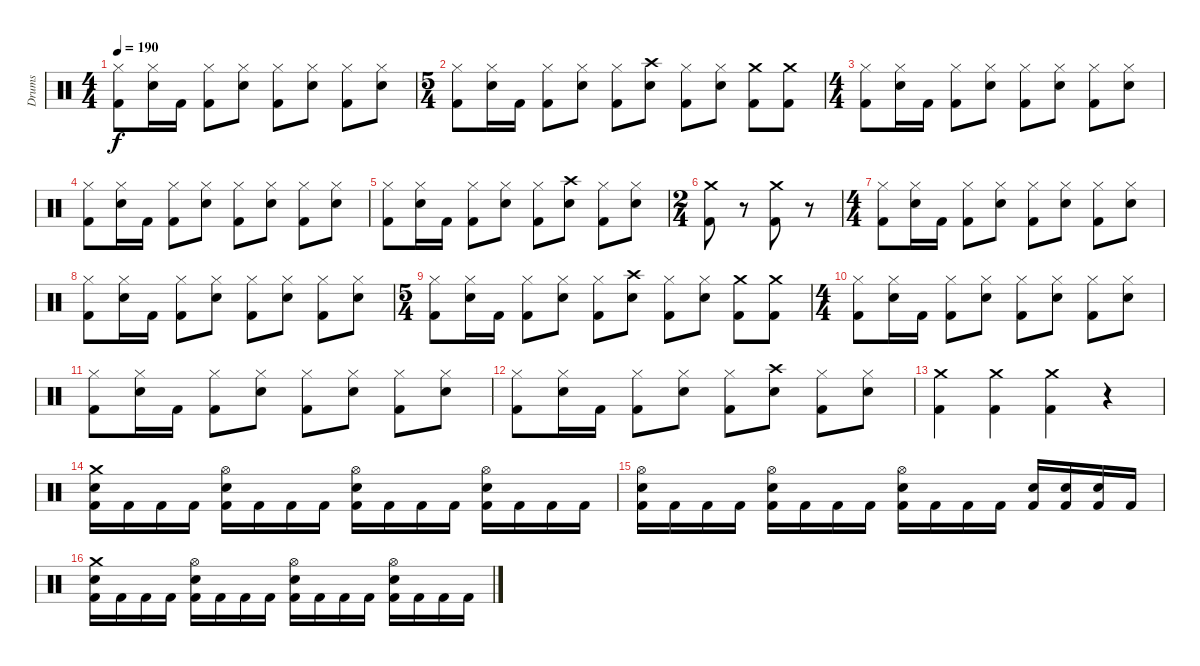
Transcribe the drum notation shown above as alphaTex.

\track ("Drums" "Drums") {instrument percussion}
\staff {score}
\articulation defaults
\ts (4 4)
\tempo 190
\clef neutral
\ks c
("Kick (hit) 2" "Hi-Hat (closed)").8{dy f} ("Snare (hit) 2" "Hi-Hat (closed)").16 "Kick (hit) 2".16 ("Kick (hit) 2" "Hi-Hat (closed)").8 ("Snare (hit) 2" "Hi-Hat (closed)").8 ("Kick (hit) 2" "Hi-Hat (closed)").8 ("Snare (hit) 2" "Hi-Hat (closed)").8 ("Kick (hit) 2" "Hi-Hat (closed)").8 ("Snare (hit) 2" "Hi-Hat (closed)").8 |
\ts (5 4)
("Kick (hit) 2" "Hi-Hat (closed)").8 ("Snare (hit) 2" "Hi-Hat (closed)").16 "Kick (hit) 2".16 ("Kick (hit) 2" "Hi-Hat (closed)").8 ("Snare (hit) 2" "Hi-Hat (closed)").8 ("Kick (hit) 2" "Hi-Hat (closed)").8 ("Snare (hit) 2" "Crash high (hit)").8 ("Kick (hit) 2" "Hi-Hat (closed)").8 ("Snare (hit) 2" "Hi-Hat (closed)").8 ("Kick (hit) 2" "Crash medium (hit)").8 ("Kick (hit) 2" "Crash medium (hit)").8 |
\ts (4 4)
("Kick (hit) 2" "Hi-Hat (closed)").8 ("Snare (hit) 2" "Hi-Hat (closed)").16 "Kick (hit) 2".16 ("Kick (hit) 2" "Hi-Hat (closed)").8 ("Snare (hit) 2" "Hi-Hat (closed)").8 ("Kick (hit) 2" "Hi-Hat (closed)").8 ("Snare (hit) 2" "Hi-Hat (closed)").8 ("Kick (hit) 2" "Hi-Hat (closed)").8 ("Snare (hit) 2" "Hi-Hat (closed)").8 |
("Kick (hit) 2" "Hi-Hat (closed)").8 ("Snare (hit) 2" "Hi-Hat (closed)").16 "Kick (hit) 2".16 ("Kick (hit) 2" "Hi-Hat (closed)").8 ("Snare (hit) 2" "Hi-Hat (closed)").8 ("Kick (hit) 2" "Hi-Hat (closed)").8 ("Snare (hit) 2" "Hi-Hat (closed)").8 ("Kick (hit) 2" "Hi-Hat (closed)").8 ("Snare (hit) 2" "Hi-Hat (closed)").8 |
("Kick (hit) 2" "Hi-Hat (closed)").8 ("Snare (hit) 2" "Hi-Hat (closed)").16 "Kick (hit) 2".16 ("Kick (hit) 2" "Hi-Hat (closed)").8 ("Snare (hit) 2" "Hi-Hat (closed)").8 ("Kick (hit) 2" "Hi-Hat (closed)").8 ("Snare (hit) 2" "Crash high (hit)").8 ("Kick (hit) 2" "Hi-Hat (closed)").8 ("Snare (hit) 2" "Hi-Hat (closed)").8 |
\ts (2 4)
("Kick (hit) 2" "Crash medium (hit)").8 r.8 ("Kick (hit) 2" "Crash medium (hit)").8 r.8 |
\ts (4 4)
("Kick (hit) 2" "Hi-Hat (closed)").8 ("Snare (hit) 2" "Hi-Hat (closed)").16 "Kick (hit) 2".16 ("Kick (hit) 2" "Hi-Hat (closed)").8 ("Snare (hit) 2" "Hi-Hat (closed)").8 ("Kick (hit) 2" "Hi-Hat (closed)").8 ("Snare (hit) 2" "Hi-Hat (closed)").8 ("Kick (hit) 2" "Hi-Hat (closed)").8 ("Snare (hit) 2" "Hi-Hat (closed)").8 |
("Kick (hit) 2" "Hi-Hat (closed)").8 ("Snare (hit) 2" "Hi-Hat (closed)").16 "Kick (hit) 2".16 ("Kick (hit) 2" "Hi-Hat (closed)").8 ("Snare (hit) 2" "Hi-Hat (closed)").8 ("Kick (hit) 2" "Hi-Hat (closed)").8 ("Snare (hit) 2" "Hi-Hat (closed)").8 ("Kick (hit) 2" "Hi-Hat (closed)").8 ("Snare (hit) 2" "Hi-Hat (closed)").8 |
\ts (5 4)
("Kick (hit) 2" "Hi-Hat (closed)").8 ("Snare (hit) 2" "Hi-Hat (closed)").16 "Kick (hit) 2".16 ("Kick (hit) 2" "Hi-Hat (closed)").8 ("Snare (hit) 2" "Hi-Hat (closed)").8 ("Kick (hit) 2" "Hi-Hat (closed)").8 ("Snare (hit) 2" "Crash high (hit)").8 ("Kick (hit) 2" "Hi-Hat (closed)").8 ("Snare (hit) 2" "Hi-Hat (closed)").8 ("Kick (hit) 2" "Crash medium (hit)").8 ("Kick (hit) 2" "Crash medium (hit)").8 |
\ts (4 4)
("Kick (hit) 2" "Hi-Hat (closed)").8 ("Snare (hit) 2" "Hi-Hat (closed)").16 "Kick (hit) 2".16 ("Kick (hit) 2" "Hi-Hat (closed)").8 ("Snare (hit) 2" "Hi-Hat (closed)").8 ("Kick (hit) 2" "Hi-Hat (closed)").8 ("Snare (hit) 2" "Hi-Hat (closed)").8 ("Kick (hit) 2" "Hi-Hat (closed)").8 ("Snare (hit) 2" "Hi-Hat (closed)").8 |
("Kick (hit) 2" "Hi-Hat (closed)").8 ("Snare (hit) 2" "Hi-Hat (closed)").16 "Kick (hit) 2".16 ("Kick (hit) 2" "Hi-Hat (closed)").8 ("Snare (hit) 2" "Hi-Hat (closed)").8 ("Kick (hit) 2" "Hi-Hat (closed)").8 ("Snare (hit) 2" "Hi-Hat (closed)").8 ("Kick (hit) 2" "Hi-Hat (closed)").8 ("Snare (hit) 2" "Hi-Hat (closed)").8 |
("Kick (hit) 2" "Hi-Hat (closed)").8 ("Snare (hit) 2" "Hi-Hat (closed)").16 "Kick (hit) 2".16 ("Kick (hit) 2" "Hi-Hat (closed)").8 ("Snare (hit) 2" "Hi-Hat (closed)").8 ("Kick (hit) 2" "Hi-Hat (closed)").8 ("Snare (hit) 2" "Crash high (hit)").8 ("Kick (hit) 2" "Hi-Hat (closed)").8 ("Snare (hit) 2" "Hi-Hat (closed)").8 |
("Crash medium (hit)" "Kick (hit) 2").4 ("Crash medium (hit)" "Kick (hit) 2").4 ("Crash medium (hit)" "Kick (hit) 2").4 r.4 |
("Kick (hit) 2" "Snare (hit) 2" "Crash medium (hit)").16 "Kick (hit) 2".16 "Kick (hit) 2".16 "Kick (hit) 2".16 ("Kick (hit) 2" "Snare (hit) 2" "Hi-Hat (open)").16 "Kick (hit) 2".16 "Kick (hit) 2".16 "Kick (hit) 2".16 ("Kick (hit) 2" "Snare (hit) 2" "Hi-Hat (open)").16 "Kick (hit) 2".16 "Kick (hit) 2".16 "Kick (hit) 2".16 ("Kick (hit) 2" "Snare (hit) 2" "Hi-Hat (open)").16 "Kick (hit) 2".16 "Kick (hit) 2".16 "Kick (hit) 2".16 |
("Kick (hit) 2" "Snare (hit) 2" "Hi-Hat (open)").16 "Kick (hit) 2".16 "Kick (hit) 2".16 "Kick (hit) 2".16 ("Kick (hit) 2" "Snare (hit) 2" "Hi-Hat (open)").16 "Kick (hit) 2".16 "Kick (hit) 2".16 "Kick (hit) 2".16 ("Kick (hit) 2" "Snare (hit) 2" "Hi-Hat (open)").16 "Kick (hit) 2".16 "Kick (hit) 2".16 "Kick (hit) 2".16 ("Kick (hit) 2" "Snare (hit) 2").16 ("Kick (hit) 2" "Snare (hit) 2").16 ("Kick (hit) 2" "Snare (hit) 2").16 "Kick (hit) 2".16 |
("Kick (hit) 2" "Snare (hit) 2" "Crash medium (hit)").16 "Kick (hit) 2".16 "Kick (hit) 2".16 "Kick (hit) 2".16 ("Kick (hit) 2" "Snare (hit) 2" "Hi-Hat (open)").16 "Kick (hit) 2".16 "Kick (hit) 2".16 "Kick (hit) 2".16 ("Kick (hit) 2" "Snare (hit) 2" "Hi-Hat (open)").16 "Kick (hit) 2".16 "Kick (hit) 2".16 "Kick (hit) 2".16 ("Kick (hit) 2" "Snare (hit) 2" "Hi-Hat (open)").16 "Kick (hit) 2".16 "Kick (hit) 2".16 "Kick (hit) 2".16
